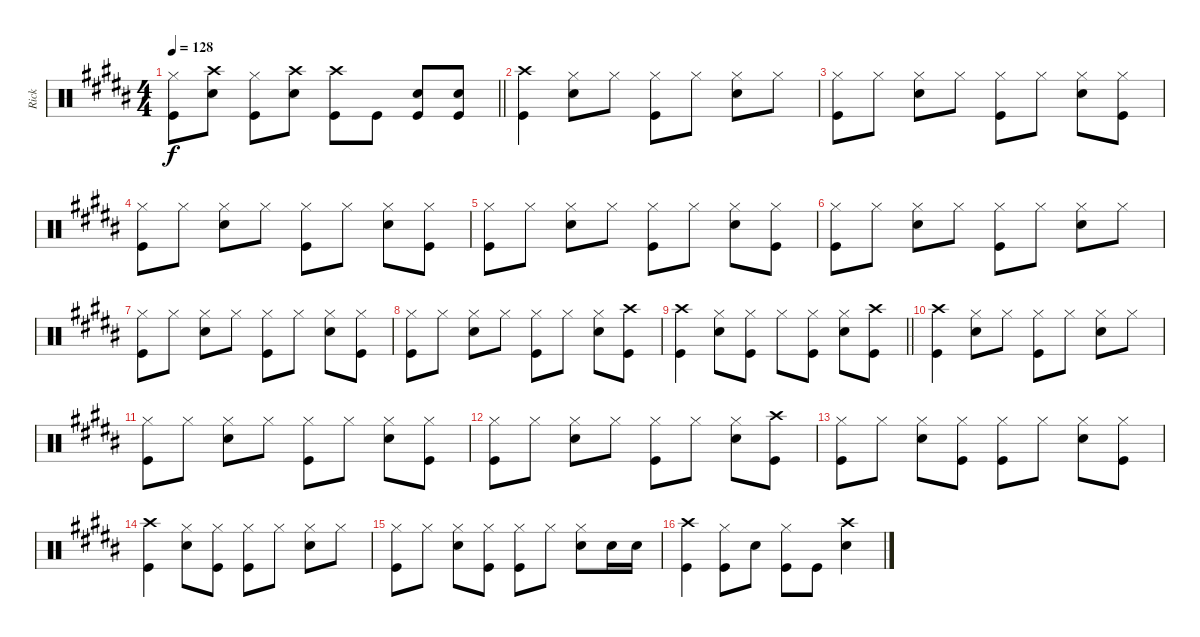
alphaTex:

\track ("Rick" "Rick") {instrument percussion}
\staff {score}
\articulation defaults
\ts (4 4)
\tempo 128
\clef neutral
\barLineRight lightlight
\ks b
("Hi-Hat (closed)" "Kick (hit)").8{dy f} ("Crash high (hit)" "Snare (hit) 2").8 ("Hi-Hat (closed)" "Kick (hit)").8 ("Crash high (hit)" "Snare (hit) 2").8 ("Crash high (hit)" "Kick (hit)").8 "Kick (hit)".8 ("Snare (hit) 2" "Kick (hit)").8 ("Snare (hit) 2" "Kick (hit)").8 |
("Crash high (hit)" "Kick (hit)").4 ("Hi-Hat (closed)" "Snare (hit) 2").8 "Hi-Hat (closed)".8 ("Hi-Hat (closed)" "Kick (hit)").8 "Hi-Hat (closed)".8 ("Hi-Hat (closed)" "Snare (hit) 2").8 "Hi-Hat (closed)".8 |
("Hi-Hat (closed)" "Kick (hit)").8 "Hi-Hat (closed)".8 ("Hi-Hat (closed)" "Snare (hit) 2").8 "Hi-Hat (closed)".8 ("Hi-Hat (closed)" "Kick (hit)").8 "Hi-Hat (closed)".8 ("Hi-Hat (closed)" "Snare (hit) 2").8 ("Hi-Hat (closed)" "Kick (hit)").8 |
("Hi-Hat (closed)" "Kick (hit)").8 "Hi-Hat (closed)".8 ("Hi-Hat (closed)" "Snare (hit) 2").8 "Hi-Hat (closed)".8 ("Hi-Hat (closed)" "Kick (hit)").8 "Hi-Hat (closed)".8 ("Hi-Hat (closed)" "Snare (hit) 2").8 ("Hi-Hat (closed)" "Kick (hit)").8 |
("Hi-Hat (closed)" "Kick (hit)").8 "Hi-Hat (closed)".8 ("Hi-Hat (closed)" "Snare (hit) 2").8 "Hi-Hat (closed)".8 ("Hi-Hat (closed)" "Kick (hit)").8 "Hi-Hat (closed)".8 ("Hi-Hat (closed)" "Snare (hit) 2").8 ("Hi-Hat (closed)" "Kick (hit)").8 |
("Hi-Hat (closed)" "Kick (hit)").8 "Hi-Hat (closed)".8 ("Hi-Hat (closed)" "Snare (hit) 2").8 "Hi-Hat (closed)".8 ("Hi-Hat (closed)" "Kick (hit)").8 "Hi-Hat (closed)".8 ("Hi-Hat (closed)" "Snare (hit) 2").8 "Hi-Hat (closed)".8 |
("Hi-Hat (closed)" "Kick (hit)").8 "Hi-Hat (closed)".8 ("Hi-Hat (closed)" "Snare (hit) 2").8 "Hi-Hat (closed)".8 ("Hi-Hat (closed)" "Kick (hit)").8 "Hi-Hat (closed)".8 ("Hi-Hat (closed)" "Snare (hit) 2").8 ("Hi-Hat (closed)" "Kick (hit)").8 |
("Hi-Hat (closed)" "Kick (hit)").8 "Hi-Hat (closed)".8 ("Hi-Hat (closed)" "Snare (hit) 2").8 "Hi-Hat (closed)".8 ("Hi-Hat (closed)" "Kick (hit)").8 "Hi-Hat (closed)".8 ("Hi-Hat (closed)" "Snare (hit) 2").8 ("Crash high (hit)" "Kick (hit)").8 |
\barLineRight lightlight
("Crash high (hit)" "Kick (hit)").4 ("Hi-Hat (closed)" "Snare (hit) 2").8 ("Hi-Hat (closed)" "Kick (hit)").8 "Hi-Hat (closed)".8 ("Hi-Hat (closed)" "Kick (hit)").8 ("Hi-Hat (closed)" "Snare (hit) 2").8 ("Crash high (hit)" "Kick (hit)").8 |
("Crash high (hit)" "Kick (hit)").4 ("Hi-Hat (closed)" "Snare (hit) 2").8 "Hi-Hat (closed)".8 ("Hi-Hat (closed)" "Kick (hit)").8 "Hi-Hat (closed)".8 ("Hi-Hat (closed)" "Snare (hit) 2").8 "Hi-Hat (closed)".8 |
("Hi-Hat (closed)" "Kick (hit)").8 "Hi-Hat (closed)".8 ("Hi-Hat (closed)" "Snare (hit) 2").8 "Hi-Hat (closed)".8 ("Hi-Hat (closed)" "Kick (hit)").8 "Hi-Hat (closed)".8 ("Hi-Hat (closed)" "Snare (hit) 2").8 ("Hi-Hat (closed)" "Kick (hit)").8 |
("Hi-Hat (closed)" "Kick (hit)").8 "Hi-Hat (closed)".8 ("Hi-Hat (closed)" "Snare (hit) 2").8 "Hi-Hat (closed)".8 ("Hi-Hat (closed)" "Kick (hit)").8 "Hi-Hat (closed)".8 ("Hi-Hat (closed)" "Snare (hit) 2").8 ("Crash high (hit)" "Kick (hit)").8 |
("Hi-Hat (closed)" "Kick (hit)").8 "Hi-Hat (closed)".8 ("Hi-Hat (closed)" "Snare (hit) 2").8 ("Hi-Hat (closed)" "Kick (hit)").8 ("Hi-Hat (closed)" "Kick (hit)").8 "Hi-Hat (closed)".8 ("Hi-Hat (closed)" "Snare (hit) 2").8 ("Hi-Hat (closed)" "Kick (hit)").8 |
("Crash high (hit)" "Kick (hit)").4 ("Hi-Hat (closed)" "Snare (hit) 2").8 ("Hi-Hat (closed)" "Kick (hit)").8 ("Hi-Hat (closed)" "Kick (hit)").8 "Hi-Hat (closed)".8 ("Hi-Hat (closed)" "Snare (hit) 2").8 "Hi-Hat (closed)".8 |
("Hi-Hat (closed)" "Kick (hit)").8 "Hi-Hat (closed)".8 ("Hi-Hat (closed)" "Snare (hit) 2").8 ("Hi-Hat (closed)" "Kick (hit)").8 ("Hi-Hat (closed)" "Kick (hit)").8 "Hi-Hat (closed)".8 ("Hi-Hat (closed)" "Snare (hit) 2").8 "Snare (hit) 2".16 "Snare (hit) 2".16 |
("Crash high (hit)" "Kick (hit)").4 ("Hi-Hat (closed)" "Kick (hit)").8 "Snare (hit) 2".8 ("Hi-Hat (closed)" "Kick (hit)").8 "Kick (hit)".8 ("Crash high (hit)" "Snare (hit) 2").4
